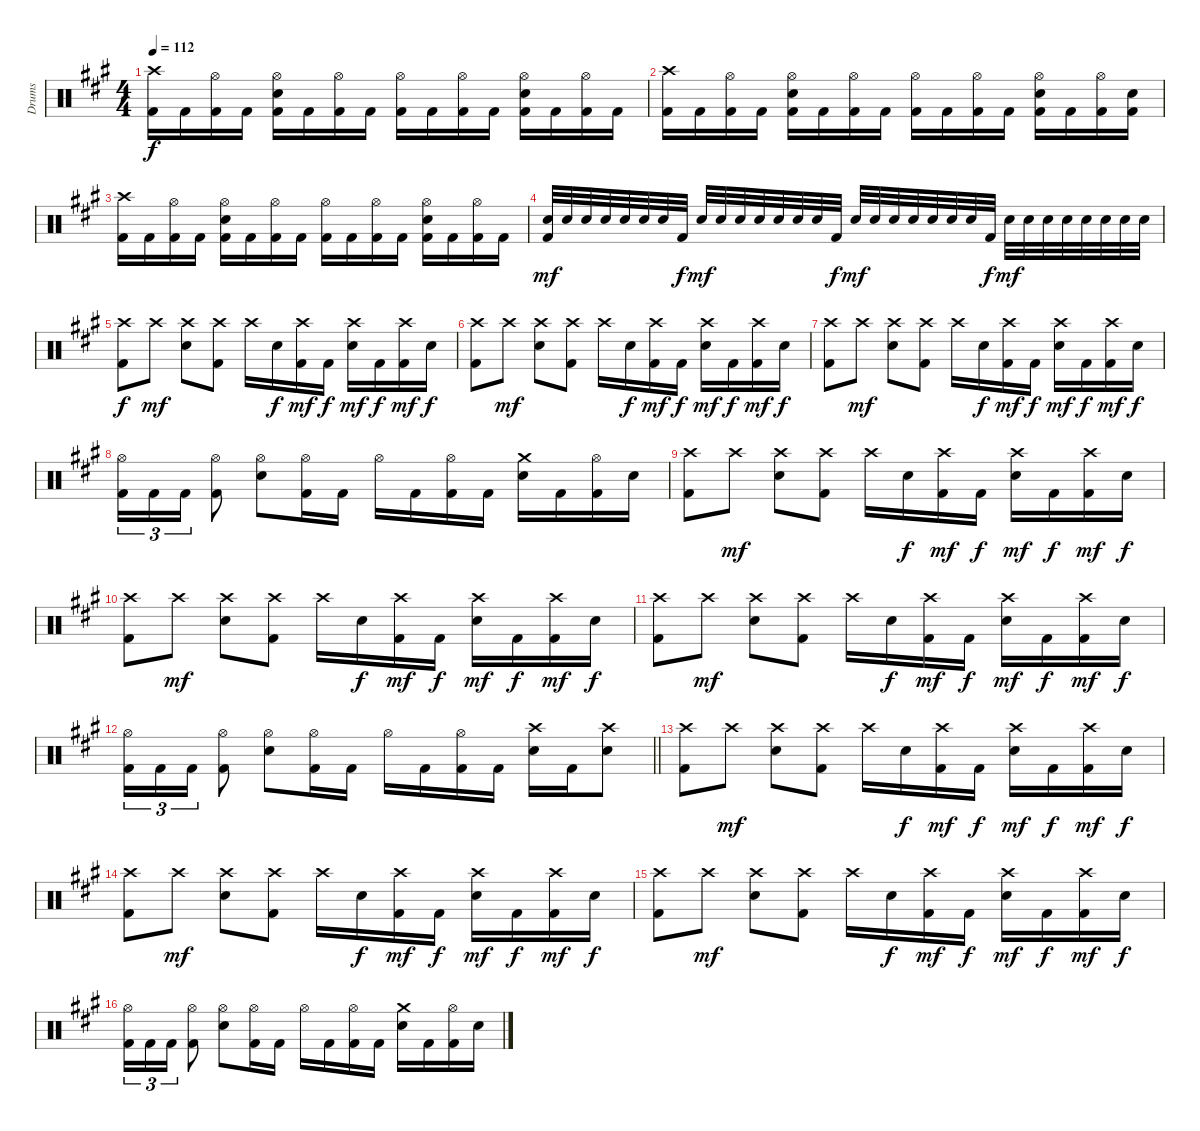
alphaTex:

\track ("Drums" "Drums") {instrument percussion}
\staff {score}
\articulation defaults
\ts (4 4)
\tempo 112
\clef neutral
\ks f#minor
("Crash high (hit)" "Kick (hit) 2").16{dy f} "Kick (hit) 2".16 ("Hi-Hat (open)" "Kick (hit) 2").16 "Kick (hit) 2".16 ("Hi-Hat (open)" "Snare (hit) 2" "Kick (hit) 2").16 "Kick (hit) 2".16 ("Hi-Hat (open)" "Kick (hit) 2").16 "Kick (hit) 2".16 ("Hi-Hat (open)" "Kick (hit) 2").16 "Kick (hit) 2".16 ("Hi-Hat (open)" "Kick (hit) 2").16 "Kick (hit) 2".16 ("Hi-Hat (open)" "Snare (hit) 2" "Kick (hit) 2").16 "Kick (hit) 2".16 ("Hi-Hat (open)" "Kick (hit) 2").16 "Kick (hit) 2".16 |
("Crash high (hit)" "Kick (hit) 2").16 "Kick (hit) 2".16 ("Hi-Hat (open)" "Kick (hit) 2").16 "Kick (hit) 2".16 ("Hi-Hat (open)" "Snare (hit) 2" "Kick (hit) 2").16 "Kick (hit) 2".16 ("Hi-Hat (open)" "Kick (hit) 2").16 "Kick (hit) 2".16 ("Hi-Hat (open)" "Kick (hit) 2").16 "Kick (hit) 2".16 ("Hi-Hat (open)" "Kick (hit) 2").16 "Kick (hit) 2".16 ("Hi-Hat (open)" "Snare (hit) 2" "Kick (hit) 2").16 "Kick (hit) 2".16 ("Hi-Hat (open)" "Kick (hit) 2").16 ("Snare (hit) 2" "Kick (hit) 2").16 |
("Crash high (hit)" "Kick (hit) 2").16 "Kick (hit) 2".16 ("Hi-Hat (open)" "Kick (hit) 2").16 "Kick (hit) 2".16 ("Hi-Hat (open)" "Snare (hit) 2" "Kick (hit) 2").16 "Kick (hit) 2".16 ("Hi-Hat (open)" "Kick (hit) 2").16 "Kick (hit) 2".16 ("Hi-Hat (open)" "Kick (hit) 2").16 "Kick (hit) 2".16 ("Hi-Hat (open)" "Kick (hit) 2").16 "Kick (hit) 2".16 ("Hi-Hat (open)" "Snare (hit) 2" "Kick (hit) 2").16 "Kick (hit) 2".16 ("Hi-Hat (open)" "Kick (hit) 2").16 "Kick (hit) 2".16 |
("Snare (hit) 2" "Kick (hit) 2").32{dy mf} "Snare (hit) 2".32 "Snare (hit) 2".32 "Snare (hit) 2".32 "Snare (hit) 2".32 "Snare (hit) 2".32 "Snare (hit) 2".32 "Kick (hit) 2".32{dy f} "Snare (hit) 2".32{dy mf} "Snare (hit) 2".32 "Snare (hit) 2".32 "Snare (hit) 2".32 "Snare (hit) 2".32 "Snare (hit) 2".32 "Snare (hit) 2".32 "Kick (hit) 2".32{dy f} "Snare (hit) 2".32{dy mf} "Snare (hit) 2".32 "Snare (hit) 2".32 "Snare (hit) 2".32 "Snare (hit) 2".32 "Snare (hit) 2".32 "Snare (hit) 2".32 "Kick (hit) 2".32{dy f} "Snare (hit) 2".32{dy mf} "Snare (hit) 2".32 "Snare (hit) 2".32 "Snare (hit) 2".32 "Snare (hit) 2".32 "Snare (hit) 2".32 "Snare (hit) 2".32 "Snare (hit) 2".32 |
("Crash high (hit)" "Kick (hit) 2").8{dy f} "Crash high (hit)".8{dy mf} ("Crash high (hit)" "Snare (hit) 2").8 ("Crash high (hit)" "Kick (hit) 2").8 "Crash high (hit)".16 "Snare (hit) 2".16{dy f} ("Crash high (hit)" "Kick (hit) 2").16{dy mf} "Kick (hit) 2".16{dy f} ("Crash high (hit)" "Snare (hit) 2").16{dy mf} "Kick (hit) 2".16{dy f} ("Crash high (hit)" "Kick (hit) 2").16{dy mf} "Snare (hit) 2".16{dy f} |
("Crash high (hit)" "Kick (hit) 2").8 "Crash high (hit)".8{dy mf} ("Crash high (hit)" "Snare (hit) 2").8 ("Crash high (hit)" "Kick (hit) 2").8 "Crash high (hit)".16 "Snare (hit) 2".16{dy f} ("Crash high (hit)" "Kick (hit) 2").16{dy mf} "Kick (hit) 2".16{dy f} ("Crash high (hit)" "Snare (hit) 2").16{dy mf} "Kick (hit) 2".16{dy f} ("Crash high (hit)" "Kick (hit) 2").16{dy mf} "Snare (hit) 2".16{dy f} |
("Crash high (hit)" "Kick (hit) 2").8 "Crash high (hit)".8{dy mf} ("Crash high (hit)" "Snare (hit) 2").8 ("Crash high (hit)" "Kick (hit) 2").8 "Crash high (hit)".16 "Snare (hit) 2".16{dy f} ("Crash high (hit)" "Kick (hit) 2").16{dy mf} "Kick (hit) 2".16{dy f} ("Crash high (hit)" "Snare (hit) 2").16{dy mf} "Kick (hit) 2".16{dy f} ("Crash high (hit)" "Kick (hit) 2").16{dy mf} "Snare (hit) 2".16{dy f} |
("Hi-Hat (open)" "Kick (hit) 2").16{tu (3 2)} "Kick (hit) 2".16{tu (3 2)} "Kick (hit) 2".16{tu (3 2)} ("Hi-Hat (open)" "Kick (hit) 2").8 ("Hi-Hat (open)" "Snare (hit) 2").8 ("Hi-Hat (open)" "Kick (hit) 2").16 "Kick (hit) 2".16 "Hi-Hat (open)".16 "Kick (hit) 2".16 ("Hi-Hat (open)" "Kick (hit) 2").16 "Kick (hit) 2".16 ("Crash medium (hit)" "Snare (hit) 2").16 "Kick (hit) 2".16 ("Hi-Hat (open)" "Kick (hit) 2").16 "Snare (hit) 2".16 |
("Crash high (hit)" "Kick (hit) 2").8 "Crash high (hit)".8{dy mf} ("Crash high (hit)" "Snare (hit) 2").8 ("Crash high (hit)" "Kick (hit) 2").8 "Crash high (hit)".16 "Snare (hit) 2".16{dy f} ("Crash high (hit)" "Kick (hit) 2").16{dy mf} "Kick (hit) 2".16{dy f} ("Crash high (hit)" "Snare (hit) 2").16{dy mf} "Kick (hit) 2".16{dy f} ("Crash high (hit)" "Kick (hit) 2").16{dy mf} "Snare (hit) 2".16{dy f} |
("Crash high (hit)" "Kick (hit) 2").8 "Crash high (hit)".8{dy mf} ("Crash high (hit)" "Snare (hit) 2").8 ("Crash high (hit)" "Kick (hit) 2").8 "Crash high (hit)".16 "Snare (hit) 2".16{dy f} ("Crash high (hit)" "Kick (hit) 2").16{dy mf} "Kick (hit) 2".16{dy f} ("Crash high (hit)" "Snare (hit) 2").16{dy mf} "Kick (hit) 2".16{dy f} ("Crash high (hit)" "Kick (hit) 2").16{dy mf} "Snare (hit) 2".16{dy f} |
("Crash high (hit)" "Kick (hit) 2").8 "Crash high (hit)".8{dy mf} ("Crash high (hit)" "Snare (hit) 2").8 ("Crash high (hit)" "Kick (hit) 2").8 "Crash high (hit)".16 "Snare (hit) 2".16{dy f} ("Crash high (hit)" "Kick (hit) 2").16{dy mf} "Kick (hit) 2".16{dy f} ("Crash high (hit)" "Snare (hit) 2").16{dy mf} "Kick (hit) 2".16{dy f} ("Crash high (hit)" "Kick (hit) 2").16{dy mf} "Snare (hit) 2".16{dy f} |
\barLineRight lightlight
("Hi-Hat (open)" "Kick (hit) 2").16{tu (3 2)} "Kick (hit) 2".16{tu (3 2)} "Kick (hit) 2".16{tu (3 2)} ("Hi-Hat (open)" "Kick (hit) 2").8 ("Hi-Hat (open)" "Snare (hit) 2").8 ("Hi-Hat (open)" "Kick (hit) 2").16 "Kick (hit) 2".16 "Hi-Hat (open)".16 "Kick (hit) 2".16 ("Hi-Hat (open)" "Kick (hit) 2").16 "Kick (hit) 2".16 ("Crash high (hit)" "Snare (hit) 2").16 "Kick (hit) 2".16 ("Crash high (hit)" "Snare (hit) 2").8 |
("Crash high (hit)" "Kick (hit) 2").8 "Crash high (hit)".8{dy mf} ("Crash high (hit)" "Snare (hit) 2").8 ("Crash high (hit)" "Kick (hit) 2").8 "Crash high (hit)".16 "Snare (hit) 2".16{dy f} ("Crash high (hit)" "Kick (hit) 2").16{dy mf} "Kick (hit) 2".16{dy f} ("Crash high (hit)" "Snare (hit) 2").16{dy mf} "Kick (hit) 2".16{dy f} ("Crash high (hit)" "Kick (hit) 2").16{dy mf} "Snare (hit) 2".16{dy f} |
("Crash high (hit)" "Kick (hit) 2").8 "Crash high (hit)".8{dy mf} ("Crash high (hit)" "Snare (hit) 2").8 ("Crash high (hit)" "Kick (hit) 2").8 "Crash high (hit)".16 "Snare (hit) 2".16{dy f} ("Crash high (hit)" "Kick (hit) 2").16{dy mf} "Kick (hit) 2".16{dy f} ("Crash high (hit)" "Snare (hit) 2").16{dy mf} "Kick (hit) 2".16{dy f} ("Crash high (hit)" "Kick (hit) 2").16{dy mf} "Snare (hit) 2".16{dy f} |
("Crash high (hit)" "Kick (hit) 2").8 "Crash high (hit)".8{dy mf} ("Crash high (hit)" "Snare (hit) 2").8 ("Crash high (hit)" "Kick (hit) 2").8 "Crash high (hit)".16 "Snare (hit) 2".16{dy f} ("Crash high (hit)" "Kick (hit) 2").16{dy mf} "Kick (hit) 2".16{dy f} ("Crash high (hit)" "Snare (hit) 2").16{dy mf} "Kick (hit) 2".16{dy f} ("Crash high (hit)" "Kick (hit) 2").16{dy mf} "Snare (hit) 2".16{dy f} |
("Hi-Hat (open)" "Kick (hit) 2").16{tu (3 2)} "Kick (hit) 2".16{tu (3 2)} "Kick (hit) 2".16{tu (3 2)} ("Hi-Hat (open)" "Kick (hit) 2").8 ("Hi-Hat (open)" "Snare (hit) 2").8 ("Hi-Hat (open)" "Kick (hit) 2").16 "Kick (hit) 2".16 "Hi-Hat (open)".16 "Kick (hit) 2".16 ("Hi-Hat (open)" "Kick (hit) 2").16 "Kick (hit) 2".16 ("Crash medium (hit)" "Snare (hit) 2").16 "Kick (hit) 2".16 ("Hi-Hat (open)" "Kick (hit) 2").16 "Snare (hit) 2".16
